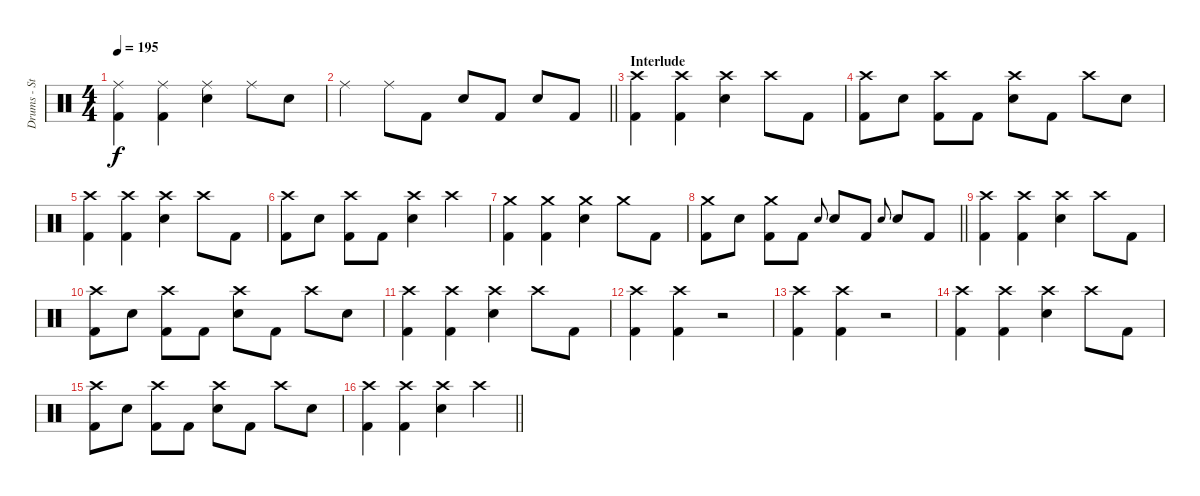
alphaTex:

\track ("Drums - Steve" "Drums - St") {instrument percussion}
\staff {score}
\articulation defaults
\ts (4 4)
\tempo 195
\clef neutral
\ks c
("Ride (middle)" "Kick (hit) 2").4{dy f} ("Ride (middle)" "Kick (hit) 2").4 ("Ride (middle)" "Snare (hit) 2").4 "Ride (middle)".8 "Snare (hit) 2".8 |
\barLineRight lightlight "Ride (middle)".4 "Ride (middle)".8 "Kick (hit) 2".8 "Snare (hit) 2".8 "Kick (hit) 2".8 "Snare (hit) 2".8 "Kick (hit) 2".8
|
\section ("" "Interlude")
("Crash high (hit)" "Kick (hit) 2").4 ("Crash high (hit)" "Kick (hit) 2").4 ("Crash high (hit)" "Snare (hit) 2").4 "Crash high (hit)".8 "Kick (hit) 2".8 |
("Crash high (hit)" "Kick (hit) 2").8 "Snare (hit) 2".8 ("Crash high (hit)" "Kick (hit) 2").8 "Kick (hit) 2".8 ("Crash high (hit)" "Snare (hit) 2").8 "Kick (hit) 2".8 "Crash high (hit)".8 "Snare (hit) 2".8 |
("Crash high (hit)" "Kick (hit) 2").4 ("Crash high (hit)" "Kick (hit) 2").4 ("Crash high (hit)" "Snare (hit) 2").4 "Crash high (hit)".8 "Kick (hit) 2".8 |
("Crash high (hit)" "Kick (hit) 2").8 "Snare (hit) 2".8 ("Crash high (hit)" "Kick (hit) 2").8 "Kick (hit) 2".8 ("Crash high (hit)" "Snare (hit) 2").4 "Crash high (hit)".4 |
("Crash medium (hit)" "Kick (hit) 2").4 ("Crash medium (hit)" "Kick (hit) 2").4 ("Crash medium (hit)" "Snare (hit) 2").4 "Crash medium (hit)".8 "Kick (hit) 2".8 |
\barLineRight lightlight
("Crash medium (hit)" "Kick (hit) 2").8 "Snare (hit) 2".8 ("Crash medium (hit)" "Kick (hit) 2").8 "Kick (hit) 2".8 "Snare (hit) 2".8{gr onbeat} "Snare (hit) 2".8 "Kick (hit) 2".8 "Snare (hit) 2".8{gr onbeat} "Snare (hit) 2".8 "Kick (hit) 2".8 |
("Crash high (hit)" "Kick (hit) 2").4 ("Crash high (hit)" "Kick (hit) 2").4 ("Crash high (hit)" "Snare (hit) 2").4 "Crash high (hit)".8 "Kick (hit) 2".8 |
("Crash high (hit)" "Kick (hit) 2").8 "Snare (hit) 2".8 ("Crash high (hit)" "Kick (hit) 2").8 "Kick (hit) 2".8 ("Crash high (hit)" "Snare (hit) 2").8 "Kick (hit) 2".8 "Crash high (hit)".8 "Snare (hit) 2".8 |
("Crash high (hit)" "Kick (hit) 2").4 ("Crash high (hit)" "Kick (hit) 2").4 ("Crash high (hit)" "Snare (hit) 2").4 "Crash high (hit)".8 "Kick (hit) 2".8 |
("Crash high (hit)" "Kick (hit) 2").4 ("Crash high (hit)" "Kick (hit) 2").4 r.2 |
("Crash high (hit)" "Kick (hit) 2").4 ("Crash high (hit)" "Kick (hit) 2").4 r.2 |
("Crash high (hit)" "Kick (hit) 2").4 ("Crash high (hit)" "Kick (hit) 2").4 ("Crash high (hit)" "Snare (hit) 2").4 "Crash high (hit)".8 "Kick (hit) 2".8 |
("Crash high (hit)" "Kick (hit) 2").8 "Snare (hit) 2".8 ("Crash high (hit)" "Kick (hit) 2").8 "Kick (hit) 2".8 ("Crash high (hit)" "Snare (hit) 2").8 "Kick (hit) 2".8 "Crash high (hit)".8 "Snare (hit) 2".8 |
\barLineRight lightlight
("Crash high (hit)" "Kick (hit) 2").4 ("Crash high (hit)" "Kick (hit) 2").4 ("Crash high (hit)" "Snare (hit) 2").4 "Crash high (hit)".4
